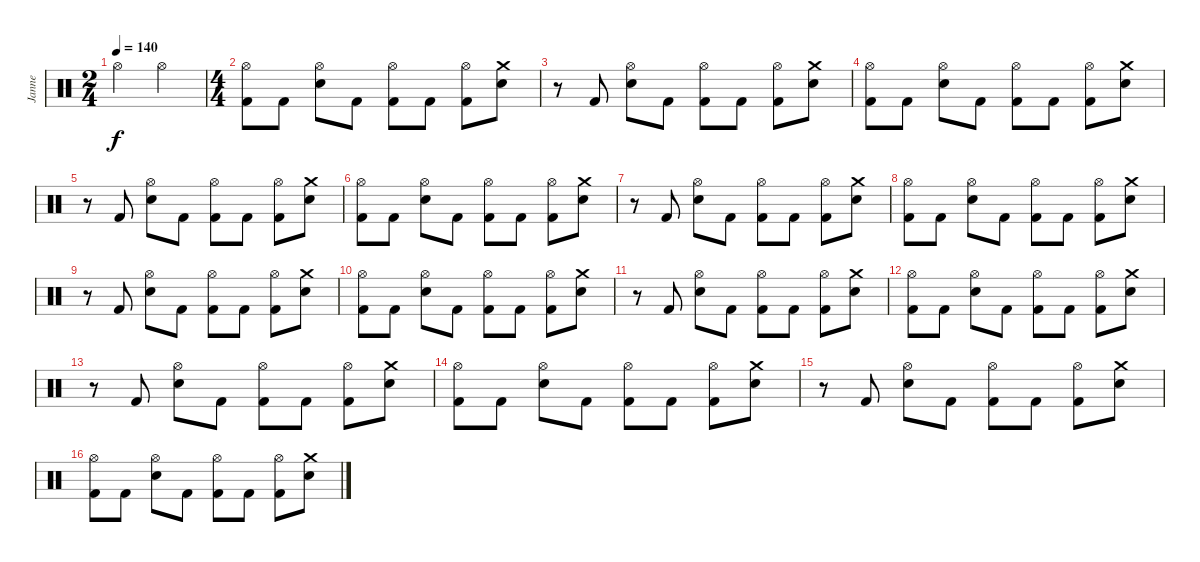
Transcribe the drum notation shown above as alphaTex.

\track ("Janne" "Janne") {instrument percussion}
\staff {score}
\articulation defaults
\ts (2 4)
\tempo 140
\clef neutral
\ks c "Hi-Hat (open)".4{dy f} "Hi-Hat (open)".4
|
\ts (4 4)
("Hi-Hat (open)" "Kick (hit) 2").8 "Kick (hit) 2".8 ("Hi-Hat (open)" "Electric Snare (hit)").8 "Kick (hit) 2".8 ("Hi-Hat (open)" "Kick (hit) 2").8 "Kick (hit) 2".8 ("Hi-Hat (open)" "Kick (hit) 2").8 ("Crash medium (hit)" "Electric Snare (hit)").8 |
r.8 "Kick (hit) 2".8 ("Hi-Hat (open)" "Electric Snare (hit)").8 "Kick (hit) 2".8 ("Hi-Hat (open)" "Kick (hit) 2").8 "Kick (hit) 2".8 ("Hi-Hat (open)" "Kick (hit) 2").8 ("Crash medium (hit)" "Electric Snare (hit)").8 |
("Hi-Hat (open)" "Kick (hit) 2").8 "Kick (hit) 2".8 ("Hi-Hat (open)" "Electric Snare (hit)").8 "Kick (hit) 2".8 ("Hi-Hat (open)" "Kick (hit) 2").8 "Kick (hit) 2".8 ("Hi-Hat (open)" "Kick (hit) 2").8 ("Crash medium (hit)" "Electric Snare (hit)").8 |
r.8 "Kick (hit) 2".8 ("Hi-Hat (open)" "Electric Snare (hit)").8 "Kick (hit) 2".8 ("Hi-Hat (open)" "Kick (hit) 2").8 "Kick (hit) 2".8 ("Hi-Hat (open)" "Kick (hit) 2").8 ("Crash medium (hit)" "Electric Snare (hit)").8 |
("Hi-Hat (open)" "Kick (hit) 2").8 "Kick (hit) 2".8 ("Hi-Hat (open)" "Electric Snare (hit)").8 "Kick (hit) 2".8 ("Hi-Hat (open)" "Kick (hit) 2").8 "Kick (hit) 2".8 ("Hi-Hat (open)" "Kick (hit) 2").8 ("Crash medium (hit)" "Electric Snare (hit)").8 |
r.8 "Kick (hit) 2".8 ("Hi-Hat (open)" "Electric Snare (hit)").8 "Kick (hit) 2".8 ("Hi-Hat (open)" "Kick (hit) 2").8 "Kick (hit) 2".8 ("Hi-Hat (open)" "Kick (hit) 2").8 ("Crash medium (hit)" "Electric Snare (hit)").8 |
("Hi-Hat (open)" "Kick (hit) 2").8 "Kick (hit) 2".8 ("Hi-Hat (open)" "Electric Snare (hit)").8 "Kick (hit) 2".8 ("Hi-Hat (open)" "Kick (hit) 2").8 "Kick (hit) 2".8 ("Hi-Hat (open)" "Kick (hit) 2").8 ("Crash medium (hit)" "Electric Snare (hit)").8 |
r.8 "Kick (hit) 2".8 ("Hi-Hat (open)" "Electric Snare (hit)").8 "Kick (hit) 2".8 ("Hi-Hat (open)" "Kick (hit) 2").8 "Kick (hit) 2".8 ("Hi-Hat (open)" "Kick (hit) 2").8 ("Crash medium (hit)" "Electric Snare (hit)").8 |
("Hi-Hat (open)" "Kick (hit) 2").8 "Kick (hit) 2".8 ("Hi-Hat (open)" "Electric Snare (hit)").8 "Kick (hit) 2".8 ("Hi-Hat (open)" "Kick (hit) 2").8 "Kick (hit) 2".8 ("Hi-Hat (open)" "Kick (hit) 2").8 ("Crash medium (hit)" "Electric Snare (hit)").8 |
r.8 "Kick (hit) 2".8 ("Hi-Hat (open)" "Electric Snare (hit)").8 "Kick (hit) 2".8 ("Hi-Hat (open)" "Kick (hit) 2").8 "Kick (hit) 2".8 ("Hi-Hat (open)" "Kick (hit) 2").8 ("Crash medium (hit)" "Electric Snare (hit)").8 |
("Hi-Hat (open)" "Kick (hit) 2").8 "Kick (hit) 2".8 ("Hi-Hat (open)" "Electric Snare (hit)").8 "Kick (hit) 2".8 ("Hi-Hat (open)" "Kick (hit) 2").8 "Kick (hit) 2".8 ("Hi-Hat (open)" "Kick (hit) 2").8 ("Crash medium (hit)" "Electric Snare (hit)").8 |
r.8 "Kick (hit) 2".8 ("Hi-Hat (open)" "Electric Snare (hit)").8 "Kick (hit) 2".8 ("Hi-Hat (open)" "Kick (hit) 2").8 "Kick (hit) 2".8 ("Hi-Hat (open)" "Kick (hit) 2").8 ("Crash medium (hit)" "Electric Snare (hit)").8 |
("Hi-Hat (open)" "Kick (hit) 2").8 "Kick (hit) 2".8 ("Hi-Hat (open)" "Electric Snare (hit)").8 "Kick (hit) 2".8 ("Hi-Hat (open)" "Kick (hit) 2").8 "Kick (hit) 2".8 ("Hi-Hat (open)" "Kick (hit) 2").8 ("Crash medium (hit)" "Electric Snare (hit)").8 |
r.8 "Kick (hit) 2".8 ("Hi-Hat (open)" "Electric Snare (hit)").8 "Kick (hit) 2".8 ("Hi-Hat (open)" "Kick (hit) 2").8 "Kick (hit) 2".8 ("Hi-Hat (open)" "Kick (hit) 2").8 ("Crash medium (hit)" "Electric Snare (hit)").8 |
("Hi-Hat (open)" "Kick (hit) 2").8 "Kick (hit) 2".8 ("Hi-Hat (open)" "Electric Snare (hit)").8 "Kick (hit) 2".8 ("Hi-Hat (open)" "Kick (hit) 2").8 "Kick (hit) 2".8 ("Hi-Hat (open)" "Kick (hit) 2").8 ("Crash medium (hit)" "Electric Snare (hit)").8
